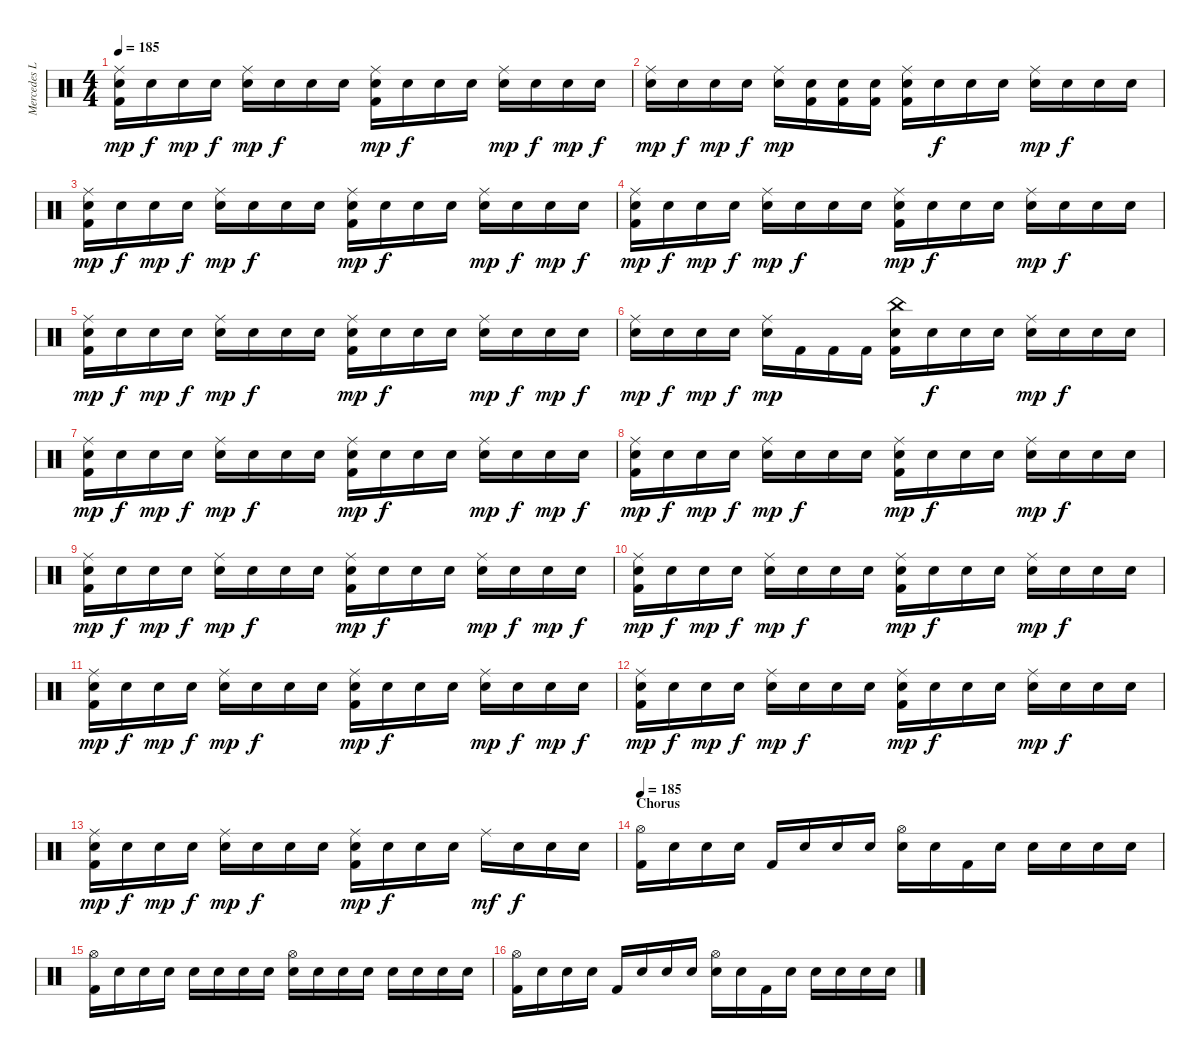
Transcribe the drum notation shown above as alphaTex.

\track ("Mercedes Lander - Drums" "Mercedes L") {instrument percussion}
\staff {score}
\articulation defaults
\ts (4 4)
\tempo 185
\clef neutral
\ks c
("Ride (middle)" "Electric Snare (hit)" "Kick (hit) 2").16{dy mp} "Snare (hit)".16{dy f} "Electric Snare (hit)".16{dy mp} "Snare (hit)".16{dy f} ("Ride (middle)" "Electric Snare (hit)").16{dy mp} "Snare (hit)".16{dy f} "Snare (hit)".16 "Snare (hit)".16 ("Ride (middle)" "Electric Snare (hit)" "Kick (hit) 2").16{dy mp} "Snare (hit)".16{dy f} "Snare (hit)".16 "Snare (hit)".16 ("Ride (middle)" "Electric Snare (hit)").16{dy mp} "Snare (hit)".16{dy f} "Electric Snare (hit)".16{dy mp} "Snare (hit)".16{dy f} |
("Ride (middle)" "Electric Snare (hit)").16{dy mp} "Snare (hit)".16{dy f} "Electric Snare (hit)".16{dy mp} "Snare (hit)".16{dy f} ("Ride (middle)" "Electric Snare (hit)").16{dy mp} ("Snare (hit)" "Kick (hit) 2").16 ("Snare (hit)" "Kick (hit) 2").16 ("Snare (hit)" "Kick (hit) 2").16 ("Ride (middle)" "Electric Snare (hit)" "Kick (hit) 2").16 "Snare (hit)".16{dy f} "Snare (hit)".16 "Snare (hit)".16 ("Ride (middle)" "Electric Snare (hit)").16{dy mp} "Snare (hit)".16{dy f} "Snare (hit)".16 "Snare (hit)".16 |
("Ride (middle)" "Electric Snare (hit)" "Kick (hit) 2").16{dy mp} "Snare (hit)".16{dy f} "Electric Snare (hit)".16{dy mp} "Snare (hit)".16{dy f} ("Ride (middle)" "Electric Snare (hit)").16{dy mp} "Snare (hit)".16{dy f} "Snare (hit)".16 "Snare (hit)".16 ("Ride (middle)" "Electric Snare (hit)" "Kick (hit) 2").16{dy mp} "Snare (hit)".16{dy f} "Snare (hit)".16 "Snare (hit)".16 ("Ride (middle)" "Electric Snare (hit)").16{dy mp} "Snare (hit)".16{dy f} "Electric Snare (hit)".16{dy mp} "Snare (hit)".16{dy f} |
("Ride (middle)" "Electric Snare (hit)" "Kick (hit) 2").16{dy mp} "Snare (hit)".16{dy f} "Electric Snare (hit)".16{dy mp} "Snare (hit)".16{dy f} ("Ride (middle)" "Electric Snare (hit)").16{dy mp} "Snare (hit)".16{dy f} "Snare (hit)".16 "Snare (hit)".16 ("Ride (middle)" "Electric Snare (hit)" "Kick (hit) 2").16{dy mp} "Snare (hit)".16{dy f} "Snare (hit)".16 "Snare (hit)".16 ("Ride (middle)" "Electric Snare (hit)").16{dy mp} "Snare (hit)".16{dy f} "Snare (hit)".16 "Snare (hit)".16 |
("Ride (middle)" "Electric Snare (hit)" "Kick (hit) 2").16{dy mp} "Snare (hit)".16{dy f} "Electric Snare (hit)".16{dy mp} "Snare (hit)".16{dy f} ("Ride (middle)" "Electric Snare (hit)").16{dy mp} "Snare (hit)".16{dy f} "Snare (hit)".16 "Snare (hit)".16 ("Ride (middle)" "Electric Snare (hit)" "Kick (hit) 2").16{dy mp} "Snare (hit)".16{dy f} "Snare (hit)".16 "Snare (hit)".16 ("Ride (middle)" "Electric Snare (hit)").16{dy mp} "Snare (hit)".16{dy f} "Electric Snare (hit)".16{dy mp} "Snare (hit)".16{dy f} |
("Ride (middle)" "Electric Snare (hit)").16{dy mp} "Snare (hit)".16{dy f} "Electric Snare (hit)".16{dy mp} "Snare (hit)".16{dy f} ("Ride (middle)" "Electric Snare (hit)").16{dy mp} "Kick (hit) 2".16 "Kick (hit) 2".16 "Kick (hit) 2".16 ("China (hit)" "Electric Snare (hit)" "Kick (hit) 2").16 "Snare (hit)".16{dy f} "Snare (hit)".16 "Snare (hit)".16 ("Ride (middle)" "Electric Snare (hit)").16{dy mp} "Snare (hit)".16{dy f} "Snare (hit)".16 "Snare (hit)".16 |
("Ride (middle)" "Electric Snare (hit)" "Kick (hit) 2").16{dy mp} "Snare (hit)".16{dy f} "Electric Snare (hit)".16{dy mp} "Snare (hit)".16{dy f} ("Ride (middle)" "Electric Snare (hit)").16{dy mp} "Snare (hit)".16{dy f} "Snare (hit)".16 "Snare (hit)".16 ("Ride (middle)" "Electric Snare (hit)" "Kick (hit) 2").16{dy mp} "Snare (hit)".16{dy f} "Snare (hit)".16 "Snare (hit)".16 ("Ride (middle)" "Electric Snare (hit)").16{dy mp} "Snare (hit)".16{dy f} "Electric Snare (hit)".16{dy mp} "Snare (hit)".16{dy f} |
("Ride (middle)" "Electric Snare (hit)" "Kick (hit) 2").16{dy mp} "Snare (hit)".16{dy f} "Electric Snare (hit)".16{dy mp} "Snare (hit)".16{dy f} ("Ride (middle)" "Electric Snare (hit)").16{dy mp} "Snare (hit)".16{dy f} "Snare (hit)".16 "Snare (hit)".16 ("Ride (middle)" "Electric Snare (hit)" "Kick (hit) 2").16{dy mp} "Snare (hit)".16{dy f} "Snare (hit)".16 "Snare (hit)".16 ("Ride (middle)" "Electric Snare (hit)").16{dy mp} "Snare (hit)".16{dy f} "Snare (hit)".16 "Snare (hit)".16 |
("Ride (middle)" "Electric Snare (hit)" "Kick (hit) 2").16{dy mp} "Snare (hit)".16{dy f} "Electric Snare (hit)".16{dy mp} "Snare (hit)".16{dy f} ("Ride (middle)" "Electric Snare (hit)").16{dy mp} "Snare (hit)".16{dy f} "Snare (hit)".16 "Snare (hit)".16 ("Ride (middle)" "Electric Snare (hit)" "Kick (hit) 2").16{dy mp} "Snare (hit)".16{dy f} "Snare (hit)".16 "Snare (hit)".16 ("Ride (middle)" "Electric Snare (hit)").16{dy mp} "Snare (hit)".16{dy f} "Electric Snare (hit)".16{dy mp} "Snare (hit)".16{dy f} |
("Ride (middle)" "Electric Snare (hit)" "Kick (hit) 2").16{dy mp} "Snare (hit)".16{dy f} "Electric Snare (hit)".16{dy mp} "Snare (hit)".16{dy f} ("Ride (middle)" "Electric Snare (hit)").16{dy mp} "Snare (hit)".16{dy f} "Snare (hit)".16 "Snare (hit)".16 ("Ride (middle)" "Electric Snare (hit)" "Kick (hit) 2").16{dy mp} "Snare (hit)".16{dy f} "Snare (hit)".16 "Snare (hit)".16 ("Ride (middle)" "Electric Snare (hit)").16{dy mp} "Snare (hit)".16{dy f} "Snare (hit)".16 "Snare (hit)".16 |
("Ride (middle)" "Electric Snare (hit)" "Kick (hit) 2").16{dy mp} "Snare (hit)".16{dy f} "Electric Snare (hit)".16{dy mp} "Snare (hit)".16{dy f} ("Ride (middle)" "Electric Snare (hit)").16{dy mp} "Snare (hit)".16{dy f} "Snare (hit)".16 "Snare (hit)".16 ("Ride (middle)" "Electric Snare (hit)" "Kick (hit) 2").16{dy mp} "Snare (hit)".16{dy f} "Snare (hit)".16 "Snare (hit)".16 ("Ride (middle)" "Electric Snare (hit)").16{dy mp} "Snare (hit)".16{dy f} "Electric Snare (hit)".16{dy mp} "Snare (hit)".16{dy f} |
("Ride (middle)" "Electric Snare (hit)" "Kick (hit) 2").16{dy mp} "Snare (hit)".16{dy f} "Electric Snare (hit)".16{dy mp} "Snare (hit)".16{dy f} ("Ride (middle)" "Electric Snare (hit)").16{dy mp} "Snare (hit)".16{dy f} "Snare (hit)".16 "Snare (hit)".16 ("Ride (middle)" "Electric Snare (hit)" "Kick (hit) 2").16{dy mp} "Snare (hit)".16{dy f} "Snare (hit)".16 "Snare (hit)".16 ("Ride (middle)" "Electric Snare (hit)").16{dy mp} "Snare (hit)".16{dy f} "Snare (hit)".16 "Snare (hit)".16 |
("Ride (middle)" "Electric Snare (hit)" "Kick (hit) 2").16{dy mp} "Snare (hit)".16{dy f} "Electric Snare (hit)".16{dy mp} "Snare (hit)".16{dy f} ("Ride (middle)" "Electric Snare (hit)").16{dy mp} "Snare (hit)".16{dy f} "Snare (hit)".16 "Snare (hit)".16 ("Ride (middle)" "Electric Snare (hit)" "Kick (hit) 2").16{dy mp} "Snare (hit)".16{dy f} "Snare (hit)".16 "Snare (hit)".16 "Ride (middle)".16{dy mf} "Snare (hit)".16{dy f} "Snare (hit)".16 "Snare (hit)".16 |
\section ("" "Chorus")
\tempo 185
("Hi-Hat (open)" "Kick (hit) 2").16{volume 16 balance 8} "Snare (hit)".16 "Electric Snare (hit)".16 "Snare (hit)".16 "Kick (hit) 2".16 "Snare (hit)".16 "Snare (hit)".16 "Snare (hit)".16 ("Hi-Hat (open)" "Electric Snare (hit)").16 "Snare (hit)".16 "Kick (hit) 2".16 "Snare (hit)".16 "Snare (hit)".16 "Snare (hit)".16 "Snare (hit)".16 "Snare (hit)".16 |
("Hi-Hat (open)" "Kick (hit) 2").16 "Snare (hit)".16 "Snare (hit)".16 "Snare (hit)".16 "Snare (hit)".16 "Snare (hit)".16 "Snare (hit)".16 "Snare (hit)".16 ("Hi-Hat (open)" "Electric Snare (hit)").16 "Snare (hit)".16 "Snare (hit)".16 "Snare (hit)".16 "Snare (hit)".16 "Snare (hit)".16 "Snare (hit)".16 "Snare (hit)".16 |
("Hi-Hat (open)" "Kick (hit) 2").16 "Snare (hit)".16 "Electric Snare (hit)".16 "Snare (hit)".16 "Kick (hit) 2".16 "Snare (hit)".16 "Snare (hit)".16 "Snare (hit)".16 ("Hi-Hat (open)" "Electric Snare (hit)").16 "Snare (hit)".16 "Kick (hit) 2".16 "Snare (hit)".16 "Snare (hit)".16 "Snare (hit)".16 "Snare (hit)".16 "Snare (hit)".16
